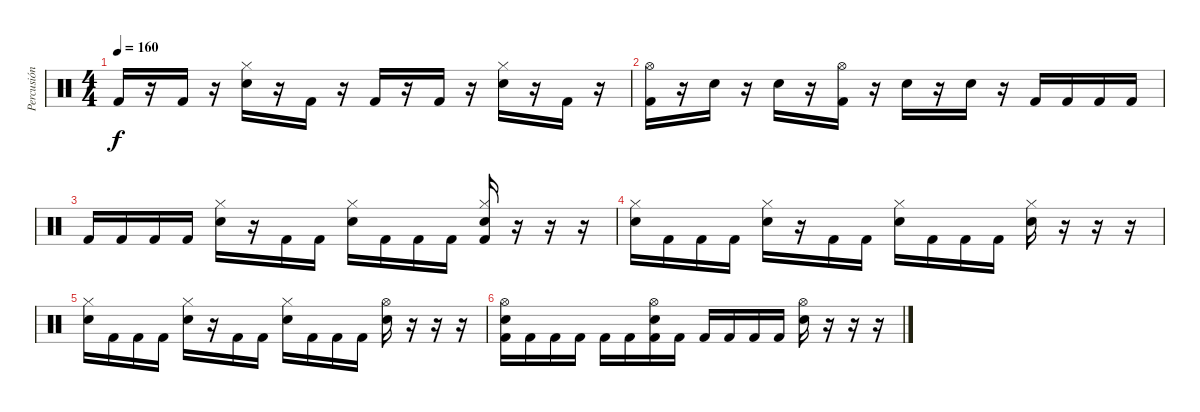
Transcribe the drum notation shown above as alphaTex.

\track ("Percusión" "Percusión") {instrument percussion}
\staff {score}
\articulation defaults
\ts (4 4)
\tempo 160
\clef neutral
\ks c "Kick (hit) 2".16{dy f}
r.16 "Kick (hit) 2".16 r.16 ("Hi-Hat (closed)" "Snare (hit) 2").16 r.16 "Kick (hit) 2".16 r.16 "Kick (hit) 2".16 r.16 "Kick (hit) 2".16 r.16 ("Hi-Hat (closed)" "Snare (hit) 2").16 r.16 "Kick (hit) 2".16 r.16 |
("Hi-Hat (open)" "Kick (hit) 2").16 r.16 "Snare (hit) 2".16 r.16 "Snare (hit) 2".16 r.16 ("Hi-Hat (open)" "Kick (hit) 2").16 r.16 "Snare (hit) 2".16 r.16 "Snare (hit) 2".16 r.16 "Kick (hit) 2".16 "Kick (hit) 2".16 "Kick (hit) 2".16 "Kick (hit) 2".16 |
"Kick (hit) 2".16 "Kick (hit) 2".16 "Kick (hit) 2".16 "Kick (hit) 2".16 ("Hi-Hat (closed)" "Snare (hit) 2").16 r.16 "Kick (hit) 2".16 "Kick (hit) 2".16 ("Hi-Hat (closed)" "Snare (hit) 2").16 "Kick (hit) 2".16 "Kick (hit) 2".16 "Kick (hit) 2".16 ("Hi-Hat (closed)" "Snare (hit) 2" "Kick (hit) 2").16 r.16 r.16 r.16 |
("Hi-Hat (closed)" "Snare (hit) 2").16 "Kick (hit) 2".16 "Kick (hit) 2".16 "Kick (hit) 2".16 ("Hi-Hat (closed)" "Snare (hit) 2").16 r.16 "Kick (hit) 2".16 "Kick (hit) 2".16 ("Hi-Hat (closed)" "Snare (hit) 2").16 "Kick (hit) 2".16 "Kick (hit) 2".16 "Kick (hit) 2".16 ("Hi-Hat (closed)" "Snare (hit) 2").16 r.16 r.16 r.16 |
("Hi-Hat (closed)" "Snare (hit) 2").16 "Kick (hit) 2".16 "Kick (hit) 2".16 "Kick (hit) 2".16 ("Hi-Hat (closed)" "Snare (hit) 2").16 r.16 "Kick (hit) 2".16 "Kick (hit) 2".16 ("Hi-Hat (closed)" "Snare (hit) 2").16 "Kick (hit) 2".16 "Kick (hit) 2".16 "Kick (hit) 2".16 ("Hi-Hat (open)" "Snare (hit) 2").16 r.16 r.16 r.16 |
("Hi-Hat (open)" "Snare (hit) 2" "Kick (hit) 2").16 "Kick (hit) 2".16 "Kick (hit) 2".16 "Kick (hit) 2".16 "Kick (hit) 2".16 "Kick (hit) 2".16 ("Hi-Hat (open)" "Snare (hit) 2" "Kick (hit) 2").16 "Kick (hit) 2".16 "Kick (hit) 2".16 "Kick (hit) 2".16 "Kick (hit) 2".16 "Kick (hit) 2".16 ("Hi-Hat (open)" "Snare (hit) 2").16 r.16 r.16 r.16
